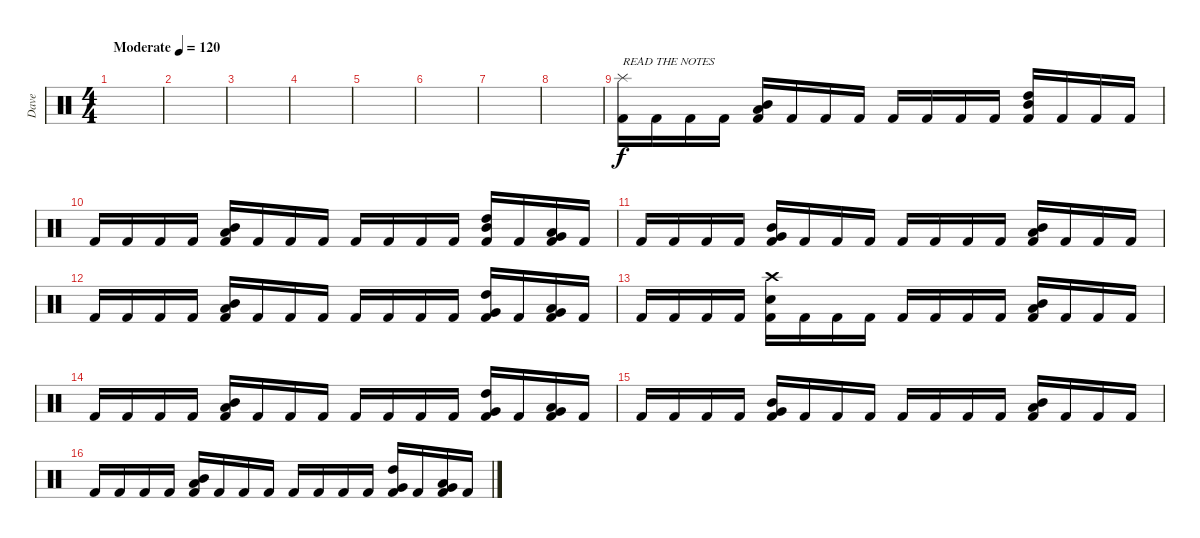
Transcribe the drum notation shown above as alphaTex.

\track ("Dave" "Dave") {instrument percussion}
\staff {score}
\articulation defaults
\ts (4 4)
\tempo (120 "Moderate")
\clef neutral
\ks c
|
|
|
|
|
|
|
|
("Kick (hit) 2" "Splash (hit)").16{txt "READ THE NOTES"} "Kick (hit) 2".16 "Kick (hit) 2".16 "Kick (hit) 2".16 ("Kick (hit) 2" "Low Tom (hit)" "Mid Tom (hit)").16 "Kick (hit) 2".16 "Kick (hit) 2".16 "Kick (hit) 2".16 "Kick (hit) 2".16 "Kick (hit) 2".16 "Kick (hit) 2".16 "Kick (hit) 2".16 ("Kick (hit) 2" "High Tom (hit)" "Mid Tom (hit)").16 "Kick (hit) 2".16 "Kick (hit) 2".16 "Kick (hit) 2".16 |
"Kick (hit) 2".16 "Kick (hit) 2".16 "Kick (hit) 2".16 "Kick (hit) 2".16 ("Kick (hit) 2" "Low Tom (hit)" "Mid Tom (hit)").16 "Kick (hit) 2".16 "Kick (hit) 2".16 "Kick (hit) 2".16 "Kick (hit) 2".16 "Kick (hit) 2".16 "Kick (hit) 2".16 "Kick (hit) 2".16 ("Kick (hit) 2" "High Tom (hit)" "Mid Tom (hit)").16 "Kick (hit) 2".16 ("Kick (hit) 2" "Very Low Tom (hit)" "Low Tom (hit)").16 "Kick (hit) 2".16 |
"Kick (hit) 2".16 "Kick (hit) 2".16 "Kick (hit) 2".16 "Kick (hit) 2".16 ("Kick (hit) 2" "Mid Tom (hit)" "Very Low Tom (hit)").16 "Kick (hit) 2".16 "Kick (hit) 2".16 "Kick (hit) 2".16 "Kick (hit) 2".16 "Kick (hit) 2".16 "Kick (hit) 2".16 "Kick (hit) 2".16 ("Kick (hit) 2" "Low Tom (hit)" "Mid Tom (hit)").16 "Kick (hit) 2".16 "Kick (hit) 2".16 "Kick (hit) 2".16 |
"Kick (hit) 2".16 "Kick (hit) 2".16 "Kick (hit) 2".16 "Kick (hit) 2".16 ("Kick (hit) 2" "Mid Tom (hit)" "Low Tom (hit)").16 "Kick (hit) 2".16 "Kick (hit) 2".16 "Kick (hit) 2".16 "Kick (hit) 2".16 "Kick (hit) 2".16 "Kick (hit) 2".16 "Kick (hit) 2".16 ("Kick (hit) 2" "Very Low Tom (hit)" "High Tom (hit)").16 "Kick (hit) 2".16 ("Kick (hit) 2" "Low Floor Tom (hit)" "Very Low Tom (hit)").16 "Kick (hit) 2".16 |
"Kick (hit) 2".16 "Kick (hit) 2".16 "Kick (hit) 2".16 "Kick (hit) 2".16 ("Kick (hit) 2" "Snare (hit) 2" "Crash high (hit)").16 "Kick (hit) 2".16 "Kick (hit) 2".16 "Kick (hit) 2".16 "Kick (hit) 2".16 "Kick (hit) 2".16 "Kick (hit) 2".16 "Kick (hit) 2".16 ("Kick (hit) 2" "Low Tom (hit)" "Mid Tom (hit)").16 "Kick (hit) 2".16 "Kick (hit) 2".16 "Kick (hit) 2".16 |
"Kick (hit) 2".16 "Kick (hit) 2".16 "Kick (hit) 2".16 "Kick (hit) 2".16 ("Kick (hit) 2" "Mid Tom (hit)" "Low Tom (hit)").16 "Kick (hit) 2".16 "Kick (hit) 2".16 "Kick (hit) 2".16 "Kick (hit) 2".16 "Kick (hit) 2".16 "Kick (hit) 2".16 "Kick (hit) 2".16 ("Kick (hit) 2" "Very Low Tom (hit)" "High Tom (hit)").16 "Kick (hit) 2".16 ("Kick (hit) 2" "Low Floor Tom (hit)" "Very Low Tom (hit)").16 "Kick (hit) 2".16 |
"Kick (hit) 2".16 "Kick (hit) 2".16 "Kick (hit) 2".16 "Kick (hit) 2".16 ("Kick (hit) 2" "Mid Tom (hit)" "Very Low Tom (hit)").16 "Kick (hit) 2".16 "Kick (hit) 2".16 "Kick (hit) 2".16 "Kick (hit) 2".16 "Kick (hit) 2".16 "Kick (hit) 2".16 "Kick (hit) 2".16 ("Kick (hit) 2" "Low Tom (hit)" "Mid Tom (hit)").16 "Kick (hit) 2".16 "Kick (hit) 2".16 "Kick (hit) 2".16 |
"Kick (hit) 2".16 "Kick (hit) 2".16 "Kick (hit) 2".16 "Kick (hit) 2".16 ("Kick (hit) 2" "Mid Tom (hit)" "Low Tom (hit)").16 "Kick (hit) 2".16 "Kick (hit) 2".16 "Kick (hit) 2".16 "Kick (hit) 2".16 "Kick (hit) 2".16 "Kick (hit) 2".16 "Kick (hit) 2".16 ("Kick (hit) 2" "Very Low Tom (hit)" "High Tom (hit)").16 "Kick (hit) 2".16 ("Kick (hit) 2" "Low Floor Tom (hit)" "Very Low Tom (hit)").16 "Kick (hit) 2".16
